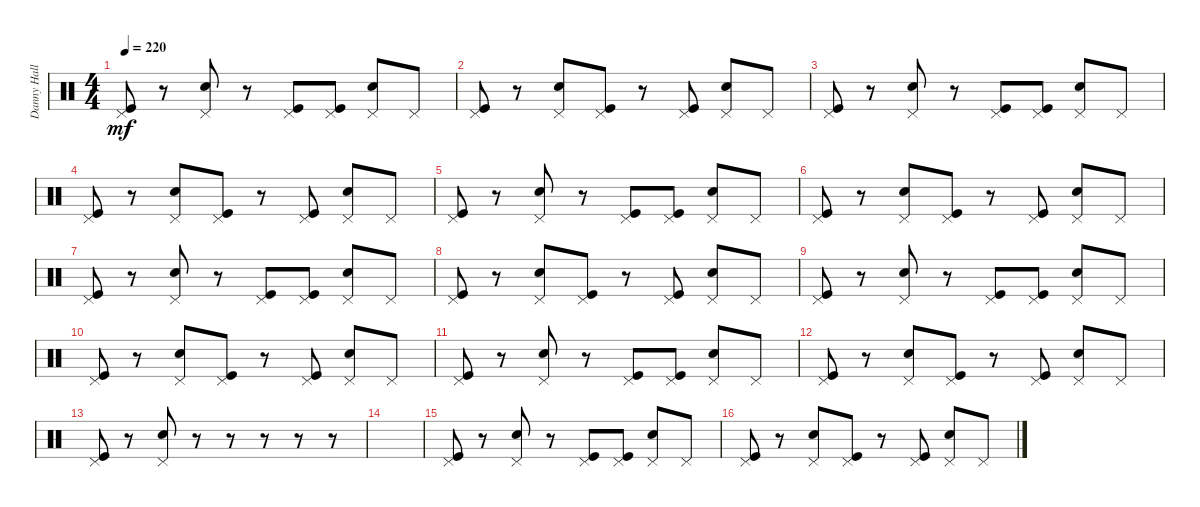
\track ("Danny Hall" "Danny Hall") {instrument percussion}
\staff {score}
\articulation defaults
\ts (4 4)
\tempo 220
\clef neutral
\ks c
("Pedal Hi-Hat (hit)" "Kick (hit)").8{dy mf} r.8 ("Pedal Hi-Hat (hit)" "Snare (hit) 2").8 r.8 ("Pedal Hi-Hat (hit)" "Kick (hit)").8 ("Pedal Hi-Hat (hit)" "Kick (hit)").8 ("Pedal Hi-Hat (hit)" "Snare (hit) 2").8 "Pedal Hi-Hat (hit)".8 |
("Pedal Hi-Hat (hit)" "Kick (hit)").8 r.8 ("Pedal Hi-Hat (hit)" "Snare (hit) 2").8 ("Pedal Hi-Hat (hit)" "Kick (hit)").8 r.8 ("Pedal Hi-Hat (hit)" "Kick (hit)").8 ("Pedal Hi-Hat (hit)" "Snare (hit) 2").8 "Pedal Hi-Hat (hit)".8 |
("Pedal Hi-Hat (hit)" "Kick (hit)").8 r.8 ("Pedal Hi-Hat (hit)" "Snare (hit) 2").8 r.8 ("Pedal Hi-Hat (hit)" "Kick (hit)").8 ("Pedal Hi-Hat (hit)" "Kick (hit)").8 ("Pedal Hi-Hat (hit)" "Snare (hit) 2").8 "Pedal Hi-Hat (hit)".8 |
("Pedal Hi-Hat (hit)" "Kick (hit)").8 r.8 ("Pedal Hi-Hat (hit)" "Snare (hit) 2").8 ("Pedal Hi-Hat (hit)" "Kick (hit)").8 r.8 ("Pedal Hi-Hat (hit)" "Kick (hit)").8 ("Pedal Hi-Hat (hit)" "Snare (hit) 2").8 "Pedal Hi-Hat (hit)".8 |
("Pedal Hi-Hat (hit)" "Kick (hit)").8 r.8 ("Pedal Hi-Hat (hit)" "Snare (hit) 2").8 r.8 ("Pedal Hi-Hat (hit)" "Kick (hit)").8 ("Pedal Hi-Hat (hit)" "Kick (hit)").8 ("Pedal Hi-Hat (hit)" "Snare (hit) 2").8 "Pedal Hi-Hat (hit)".8 |
("Pedal Hi-Hat (hit)" "Kick (hit)").8 r.8 ("Pedal Hi-Hat (hit)" "Snare (hit) 2").8 ("Pedal Hi-Hat (hit)" "Kick (hit)").8 r.8 ("Pedal Hi-Hat (hit)" "Kick (hit)").8 ("Pedal Hi-Hat (hit)" "Snare (hit) 2").8 "Pedal Hi-Hat (hit)".8 |
("Pedal Hi-Hat (hit)" "Kick (hit)").8 r.8 ("Pedal Hi-Hat (hit)" "Snare (hit) 2").8 r.8 ("Pedal Hi-Hat (hit)" "Kick (hit)").8 ("Pedal Hi-Hat (hit)" "Kick (hit)").8 ("Pedal Hi-Hat (hit)" "Snare (hit) 2").8 "Pedal Hi-Hat (hit)".8 |
("Pedal Hi-Hat (hit)" "Kick (hit)").8 r.8 ("Pedal Hi-Hat (hit)" "Snare (hit) 2").8 ("Pedal Hi-Hat (hit)" "Kick (hit)").8 r.8 ("Pedal Hi-Hat (hit)" "Kick (hit)").8 ("Pedal Hi-Hat (hit)" "Snare (hit) 2").8 "Pedal Hi-Hat (hit)".8 |
("Pedal Hi-Hat (hit)" "Kick (hit)").8 r.8 ("Pedal Hi-Hat (hit)" "Snare (hit) 2").8 r.8 ("Pedal Hi-Hat (hit)" "Kick (hit)").8 ("Pedal Hi-Hat (hit)" "Kick (hit)").8 ("Pedal Hi-Hat (hit)" "Snare (hit) 2").8 "Pedal Hi-Hat (hit)".8 |
("Pedal Hi-Hat (hit)" "Kick (hit)").8 r.8 ("Pedal Hi-Hat (hit)" "Snare (hit) 2").8 ("Pedal Hi-Hat (hit)" "Kick (hit)").8 r.8 ("Pedal Hi-Hat (hit)" "Kick (hit)").8 ("Pedal Hi-Hat (hit)" "Snare (hit) 2").8 "Pedal Hi-Hat (hit)".8 |
("Pedal Hi-Hat (hit)" "Kick (hit)").8 r.8 ("Pedal Hi-Hat (hit)" "Snare (hit) 2").8 r.8 ("Pedal Hi-Hat (hit)" "Kick (hit)").8 ("Pedal Hi-Hat (hit)" "Kick (hit)").8 ("Pedal Hi-Hat (hit)" "Snare (hit) 2").8 "Pedal Hi-Hat (hit)".8 |
("Pedal Hi-Hat (hit)" "Kick (hit)").8 r.8 ("Pedal Hi-Hat (hit)" "Snare (hit) 2").8 ("Pedal Hi-Hat (hit)" "Kick (hit)").8 r.8 ("Pedal Hi-Hat (hit)" "Kick (hit)").8 ("Pedal Hi-Hat (hit)" "Snare (hit) 2").8 "Pedal Hi-Hat (hit)".8 |
("Pedal Hi-Hat (hit)" "Kick (hit)").8 r.8 ("Pedal Hi-Hat (hit)" "Snare (hit) 2").8 r.8 r.8 r.8 r.8 r.8 |
|
("Pedal Hi-Hat (hit)" "Kick (hit)").8 r.8 ("Pedal Hi-Hat (hit)" "Snare (hit) 2").8 r.8 ("Pedal Hi-Hat (hit)" "Kick (hit)").8 ("Pedal Hi-Hat (hit)" "Kick (hit)").8 ("Pedal Hi-Hat (hit)" "Snare (hit) 2").8 "Pedal Hi-Hat (hit)".8 |
("Pedal Hi-Hat (hit)" "Kick (hit)").8 r.8 ("Pedal Hi-Hat (hit)" "Snare (hit) 2").8 ("Pedal Hi-Hat (hit)" "Kick (hit)").8 r.8 ("Pedal Hi-Hat (hit)" "Kick (hit)").8 ("Pedal Hi-Hat (hit)" "Snare (hit) 2").8 "Pedal Hi-Hat (hit)".8
